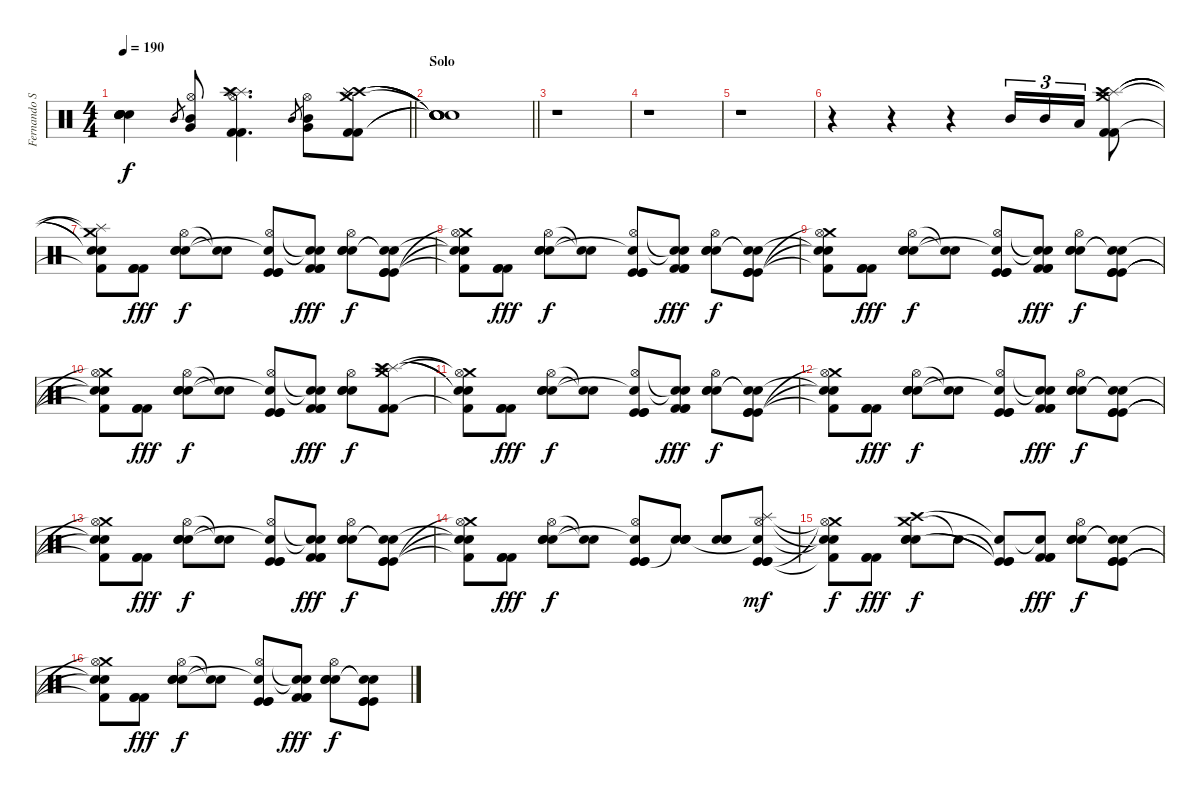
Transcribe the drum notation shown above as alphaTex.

\track ("Fernando Scarcella" "Fernando S") {instrument percussion}
\staff {score}
\articulation defaults
\ts (4 4)
\tempo 190
\clef neutral
\barLineRight lightlight
\ks c
("Snare (hit)"{t} "Snare (hit)"{t} "Snare (hit)"{t} "Snare (hit)"{t} "Snare (hit)"{t} "Snare (hit)"{t}).4{dy f} "Mid Tom (hit)".8{gr} ("Hi-Hat (open)" "Mid Tom (hit)" "Very Low Tom (hit)").8 ("Splash (hit)" "Splash (hit)" "Hi-Hat (open)" "Crash high (hit)" "Kick (hit) 2" "Kick (hit) 2").4{d} "Mid Tom (hit)".8{gr} ("Hi-Hat (open)" "Mid Tom (hit)" "Very Low Tom (hit)").8 ("Kick (hit) 2" "Crash medium (hit)" "Crash high (hit)" "Splash (hit)" "Kick (hit) 2" "Splash (hit)").8 |
\section ("" "Solo")
\barLineRight lightlight
("Snare (hit)"{t} "Snare (hit)"{t} "Snare (hit)"{t} "Snare (hit)"{t} "Snare (hit)"{t} "Snare (hit)"{t}).1 |
r.1 |
r.1 |
r.1 |
r.4 r.4 r.4 "Mid Tom (hit)".16{tu (3 2)} "Mid Tom (hit)".16{tu (3 2)} "Low Tom (hit)".16{tu (3 2)} ("Splash (hit)" "Crash medium (hit)" "Splash (hit)" "Crash high (hit)" "Kick (hit) 2" "Kick (hit) 2").8 |
("Crash medium (hit)"{t} "Splash (hit)"{t} "Snare (hit)"{t} "Snare (hit)"{t} "Kick (hit) 2"{t}).8 ("Kick (hit) 2" "Kick (hit) 2" "Kick (hit) 2").8{dy fff} ("Hi-Hat (open)" "Electric Snare (hit)" "Electric Snare (hit)" "Electric Snare (hit)").8{dy f} ("Snare (hit)"{t} "Snare (hit)"{t}).8 ("Kick (hit)" "Hi-Hat (open)" "Snare (hit)"{t} "Kick (hit)" "Kick (hit)").8 ("Kick (hit) 2" "Snare (hit)"{t} "Snare (hit)"{t} "Kick (hit) 2" "Kick (hit) 2").8{dy fff} ("Hi-Hat (open)" "Electric Snare (hit)" "Electric Snare (hit)" "Electric Snare (hit)").8{dy f} ("Kick (hit)" "Snare (hit)"{t} "Snare (hit)"{t} "Kick (hit)" "Kick (hit)").8 |
("Crash medium (hit)"{t} "Hi-Hat (open)" "Snare (hit)"{t} "Snare (hit)"{t} "Kick (hit) 2"{t}).8 ("Kick (hit) 2" "Kick (hit) 2" "Kick (hit) 2").8{dy fff} ("Hi-Hat (open)" "Electric Snare (hit)" "Electric Snare (hit)" "Electric Snare (hit)").8{dy f} ("Snare (hit)"{t} "Snare (hit)"{t}).8 ("Kick (hit)" "Hi-Hat (open)" "Snare (hit)"{t} "Kick (hit)" "Kick (hit)").8 ("Kick (hit) 2" "Snare (hit)"{t} "Snare (hit)"{t} "Kick (hit) 2" "Kick (hit) 2").8{dy fff} ("Hi-Hat (open)" "Electric Snare (hit)" "Electric Snare (hit)" "Electric Snare (hit)").8{dy f} ("Kick (hit)" "Snare (hit)"{t} "Snare (hit)"{t} "Kick (hit)" "Kick (hit)").8 |
("Crash medium (hit)"{t} "Hi-Hat (open)" "Snare (hit)"{t} "Snare (hit)"{t} "Kick (hit) 2"{t}).8 ("Kick (hit) 2" "Kick (hit) 2" "Kick (hit) 2").8{dy fff} ("Hi-Hat (open)" "Electric Snare (hit)" "Electric Snare (hit)" "Electric Snare (hit)").8{dy f} ("Snare (hit)"{t} "Snare (hit)"{t}).8 ("Kick (hit)" "Hi-Hat (open)" "Snare (hit)"{t} "Kick (hit)" "Kick (hit)").8 ("Kick (hit) 2" "Snare (hit)"{t} "Snare (hit)"{t} "Kick (hit) 2" "Kick (hit) 2").8{dy fff} ("Hi-Hat (open)" "Electric Snare (hit)" "Electric Snare (hit)" "Electric Snare (hit)").8{dy f} ("Kick (hit)" "Snare (hit)"{t} "Snare (hit)"{t} "Kick (hit)" "Kick (hit)").8 |
("Crash medium (hit)"{t} "Hi-Hat (open)" "Snare (hit)"{t} "Snare (hit)"{t} "Kick (hit) 2"{t}).8 ("Kick (hit) 2" "Kick (hit) 2" "Kick (hit) 2").8{dy fff} ("Hi-Hat (open)" "Electric Snare (hit)" "Electric Snare (hit)" "Electric Snare (hit)").8{dy f} ("Snare (hit)"{t} "Snare (hit)"{t}).8 ("Kick (hit)" "Hi-Hat (open)" "Snare (hit)"{t} "Kick (hit)" "Kick (hit)").8 ("Kick (hit) 2" "Snare (hit)"{t} "Snare (hit)"{t} "Kick (hit) 2" "Kick (hit) 2").8{dy fff} ("Hi-Hat (open)" "Electric Snare (hit)" "Electric Snare (hit)" "Electric Snare (hit)").8{dy f} ("Splash (hit)" "Crash medium (hit)" "Splash (hit)" "Crash high (hit)" "Kick (hit) 2" "Kick (hit) 2").8 |
("Crash medium (hit)"{t} "Hi-Hat (open)"{t} "Snare (hit)"{t} "Snare (hit)"{t} "Kick (hit) 2"{t}).8 ("Kick (hit) 2" "Kick (hit) 2" "Kick (hit) 2").8{dy fff} ("Hi-Hat (open)" "Electric Snare (hit)" "Electric Snare (hit)" "Electric Snare (hit)").8{dy f} ("Snare (hit)"{t} "Snare (hit)"{t}).8 ("Kick (hit)" "Hi-Hat (open)" "Snare (hit)"{t} "Kick (hit)" "Kick (hit)").8 ("Kick (hit) 2" "Snare (hit)"{t} "Snare (hit)"{t} "Kick (hit) 2" "Kick (hit) 2").8{dy fff} ("Hi-Hat (open)" "Electric Snare (hit)" "Electric Snare (hit)" "Electric Snare (hit)").8{dy f} ("Kick (hit)" "Snare (hit)"{t} "Snare (hit)"{t} "Kick (hit)" "Kick (hit)").8 |
("Crash medium (hit)"{t} "Hi-Hat (open)" "Snare (hit)"{t} "Snare (hit)"{t} "Kick (hit) 2"{t}).8 ("Kick (hit) 2" "Kick (hit) 2" "Kick (hit) 2").8{dy fff} ("Hi-Hat (open)" "Electric Snare (hit)" "Electric Snare (hit)" "Electric Snare (hit)").8{dy f} ("Snare (hit)"{t} "Snare (hit)"{t}).8 ("Kick (hit)" "Hi-Hat (open)" "Snare (hit)"{t} "Kick (hit)" "Kick (hit)").8 ("Kick (hit) 2" "Snare (hit)"{t} "Snare (hit)"{t} "Kick (hit) 2" "Kick (hit) 2").8{dy fff} ("Hi-Hat (open)" "Electric Snare (hit)" "Electric Snare (hit)" "Electric Snare (hit)").8{dy f} ("Kick (hit)" "Snare (hit)"{t} "Snare (hit)"{t} "Kick (hit)" "Kick (hit)").8 |
("Crash medium (hit)"{t} "Hi-Hat (open)" "Snare (hit)"{t} "Snare (hit)"{t} "Kick (hit) 2"{t}).8 ("Kick (hit) 2" "Kick (hit) 2" "Kick (hit) 2").8{dy fff} ("Hi-Hat (open)" "Electric Snare (hit)" "Electric Snare (hit)" "Electric Snare (hit)").8{dy f} ("Snare (hit)"{t} "Snare (hit)"{t}).8 ("Kick (hit)" "Hi-Hat (open)" "Snare (hit)"{t} "Kick (hit)" "Kick (hit)").8 ("Kick (hit) 2" "Snare (hit)"{t} "Snare (hit)"{t} "Kick (hit) 2" "Kick (hit) 2").8{dy fff} ("Hi-Hat (open)" "Electric Snare (hit)" "Electric Snare (hit)" "Electric Snare (hit)").8{dy f} ("Kick (hit)" "Snare (hit)"{t} "Snare (hit)"{t} "Kick (hit)" "Kick (hit)").8 |
("Crash medium (hit)"{t} "Hi-Hat (open)" "Snare (hit)"{t} "Snare (hit)"{t} "Kick (hit) 2"{t}).8 ("Kick (hit) 2" "Kick (hit) 2" "Kick (hit) 2").8{dy fff} ("Hi-Hat (open)" "Electric Snare (hit)" "Electric Snare (hit)" "Electric Snare (hit)").8{dy f} ("Snare (hit)"{t} "Snare (hit)"{t}).8 ("Kick (hit)" "Hi-Hat (open)" "Snare (hit)"{t} "Kick (hit)" "Kick (hit)").8 ("Snare (hit)"{t} "Electric Snare (hit)" "Electric Snare (hit)" "Electric Snare (hit)").8 ("Electric Snare (hit)" "Electric Snare (hit)" "Electric Snare (hit)").8 ("Kick (hit)" "Splash (hit)" "Hi-Hat (open)" "Snare (hit)"{t} "Kick (hit)" "Kick (hit)").8{dy mf} |
("Crash medium (hit)"{t} "Hi-Hat (open)"{t} "Snare (hit)"{t} "Snare (hit)"{t} "Kick (hit) 2"{t}).8{dy f} ("Kick (hit) 2" "Kick (hit) 2" "Kick (hit) 2").8{dy fff} ("Crash medium (hit)" "Crash high (hit)" "Electric Snare (hit)" "Electric Snare (hit)" "Electric Snare (hit)").8{dy f} "Snare (hit)"{t}.8 ("Kick (hit)"{t} "Snare (hit)"{t} "Kick (hit)"{t} "Kick (hit)"{t}).8 ("Kick (hit) 2" "Snare (hit)"{t} "Kick (hit) 2" "Kick (hit) 2").8{dy fff} ("Hi-Hat (open)" "Electric Snare (hit)" "Electric Snare (hit)" "Electric Snare (hit)").8{dy f} ("Kick (hit)" "Snare (hit)"{t} "Snare (hit)"{t} "Kick (hit)" "Kick (hit)").8 |
("Crash medium (hit)"{t} "Hi-Hat (open)" "Snare (hit)"{t} "Snare (hit)"{t} "Kick (hit) 2"{t}).8 ("Kick (hit) 2" "Kick (hit) 2" "Kick (hit) 2").8{dy fff} ("Hi-Hat (open)" "Electric Snare (hit)" "Electric Snare (hit)" "Electric Snare (hit)").8{dy f} ("Snare (hit)"{t} "Snare (hit)"{t}).8 ("Kick (hit)" "Hi-Hat (open)" "Snare (hit)"{t} "Kick (hit)" "Kick (hit)").8 ("Kick (hit) 2" "Snare (hit)"{t} "Snare (hit)"{t} "Kick (hit) 2" "Kick (hit) 2").8{dy fff} ("Hi-Hat (open)" "Electric Snare (hit)" "Electric Snare (hit)" "Electric Snare (hit)").8{dy f} ("Kick (hit)" "Snare (hit)"{t} "Snare (hit)"{t} "Kick (hit)" "Kick (hit)").8
